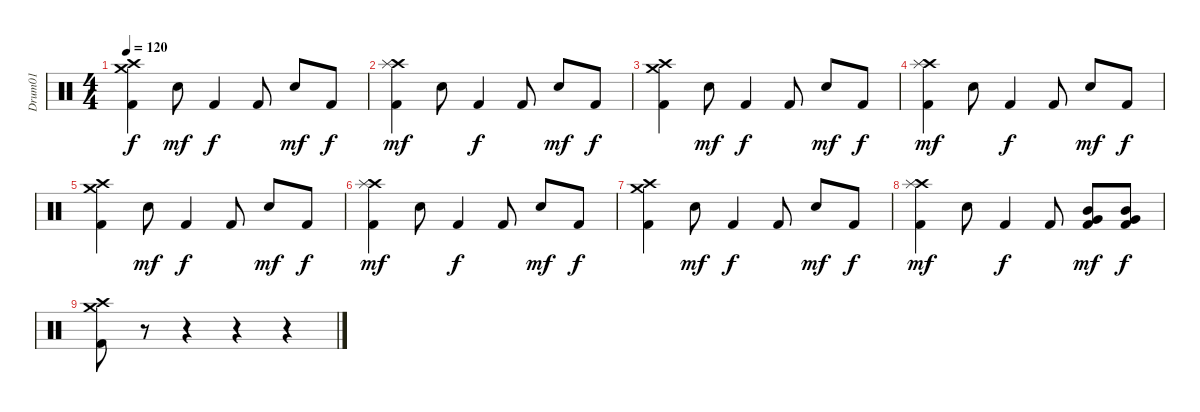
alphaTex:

\track ("Drum01" "Drum01") {instrument percussion}
\staff {score}
\articulation defaults
\ts (4 4)
\tempo 120
\clef neutral
\ks c
("Crash high (hit)" "Crash medium (hit)" "Kick (hit) 2").4{dy f} "Snare (hit) 2".8{dy mf} "Kick (hit) 2".4{dy f} "Kick (hit) 2".8 "Snare (hit) 2".8{dy mf} "Kick (hit) 2".8{dy f} |
("Crash high (hit)" "Splash (hit)" "Kick (hit) 2").4{dy mf} "Snare (hit) 2".8 "Kick (hit) 2".4{dy f} "Kick (hit) 2".8 "Snare (hit) 2".8{dy mf} "Kick (hit) 2".8{dy f} |
("Crash high (hit)" "Crash medium (hit)" "Kick (hit) 2").4 "Snare (hit) 2".8{dy mf} "Kick (hit) 2".4{dy f} "Kick (hit) 2".8 "Snare (hit) 2".8{dy mf} "Kick (hit) 2".8{dy f} |
("Crash high (hit)" "Splash (hit)" "Kick (hit) 2").4{dy mf} "Snare (hit) 2".8 "Kick (hit) 2".4{dy f} "Kick (hit) 2".8 "Snare (hit) 2".8{dy mf} "Kick (hit) 2".8{dy f} |
("Crash high (hit)" "Crash medium (hit)" "Kick (hit) 2").4 "Snare (hit) 2".8{dy mf} "Kick (hit) 2".4{dy f} "Kick (hit) 2".8 "Snare (hit) 2".8{dy mf} "Kick (hit) 2".8{dy f} |
("Crash high (hit)" "Splash (hit)" "Kick (hit) 2").4{dy mf} "Snare (hit) 2".8 "Kick (hit) 2".4{dy f} "Kick (hit) 2".8 "Snare (hit) 2".8{dy mf} "Kick (hit) 2".8{dy f} |
("Crash high (hit)" "Crash medium (hit)" "Kick (hit) 2").4 "Snare (hit) 2".8{dy mf} "Kick (hit) 2".4{dy f} "Kick (hit) 2".8 "Snare (hit) 2".8{dy mf} "Kick (hit) 2".8{dy f} |
("Crash high (hit)" "Splash (hit)" "Kick (hit) 2").4{dy mf} "Snare (hit) 2".8 "Kick (hit) 2".4{dy f} "Kick (hit) 2".8 ("Very Low Tom (hit)" "Mid Tom (hit)" "Kick (hit) 2").8{dy mf} ("Very Low Tom (hit)" "Mid Tom (hit)" "Kick (hit) 2").8{dy f} |
("Crash high (hit)" "Crash medium (hit)" "Kick (hit) 2").8 r.8 r.4 r.4 r.4
